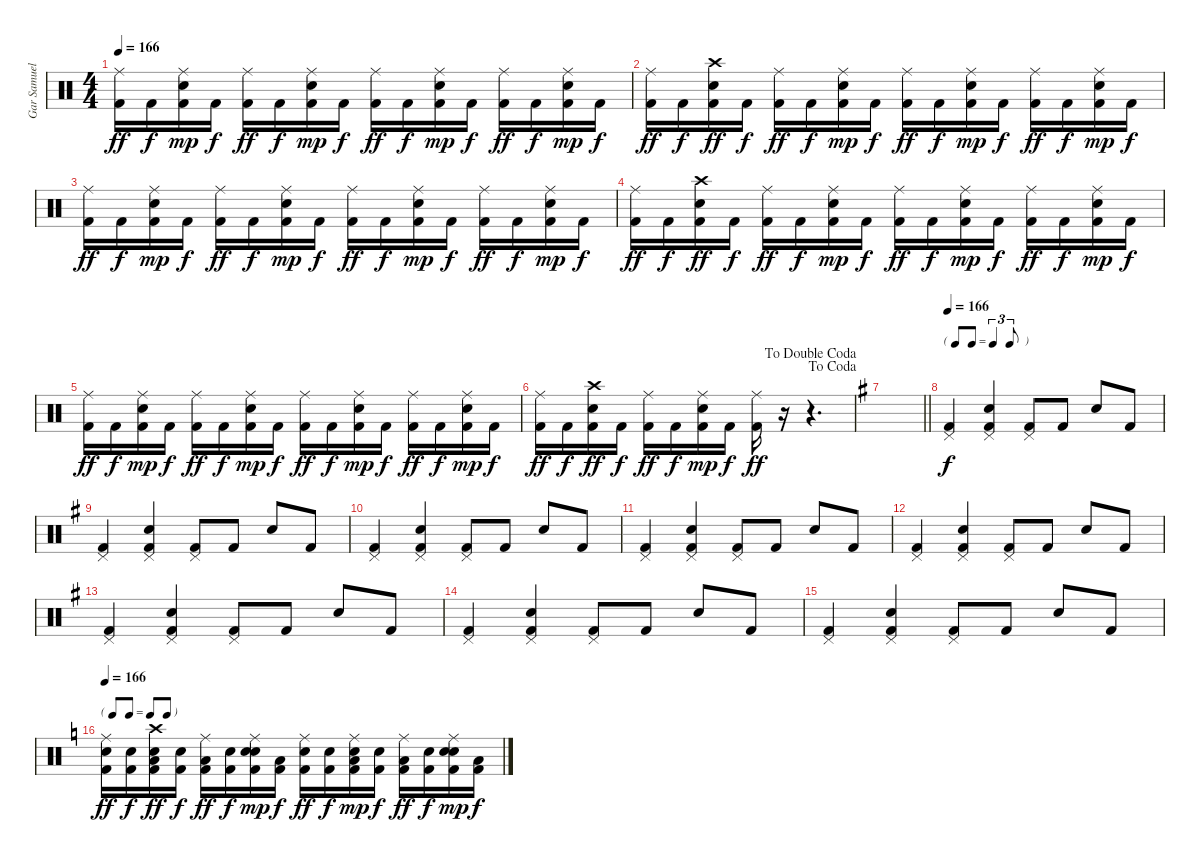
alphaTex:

\track ("Gar Samuelson" "Gar Samuel") {instrument percussion}
\staff {score}
\articulation defaults
\ts (4 4)
\tempo 166
\clef neutral
\ks c
("Ride (middle)" "Kick (hit) 2").16{dy ff} "Kick (hit) 2".16{dy f} ("Kick (hit) 2" "Snare (hit) 2" "Ride (middle)").16{dy mp} "Kick (hit) 2".16{dy f} ("Ride (middle)" "Kick (hit) 2").16{dy ff} "Kick (hit) 2".16{dy f} ("Kick (hit) 2" "Snare (hit) 2" "Ride (middle)").16{dy mp} "Kick (hit) 2".16{dy f} ("Ride (middle)" "Kick (hit) 2").16{dy ff} "Kick (hit) 2".16{dy f} ("Kick (hit) 2" "Snare (hit) 2" "Ride (middle)").16{dy mp} "Kick (hit) 2".16{dy f} ("Ride (middle)" "Kick (hit) 2").16{dy ff} "Kick (hit) 2".16{dy f} ("Kick (hit) 2" "Snare (hit) 2" "Ride (middle)").16{dy mp} "Kick (hit) 2".16{dy f} |
("Ride (middle)" "Kick (hit) 2").16{dy ff} "Kick (hit) 2".16{dy f} ("Snare (hit) 2" "Crash high (hit)" "Kick (hit) 2").16{dy ff} "Kick (hit) 2".16{dy f} ("Ride (middle)" "Kick (hit) 2").16{dy ff} "Kick (hit) 2".16{dy f} ("Kick (hit) 2" "Snare (hit) 2" "Ride (middle)").16{dy mp} "Kick (hit) 2".16{dy f} ("Ride (middle)" "Kick (hit) 2").16{dy ff} "Kick (hit) 2".16{dy f} ("Kick (hit) 2" "Snare (hit) 2" "Ride (middle)").16{dy mp} "Kick (hit) 2".16{dy f} ("Ride (middle)" "Kick (hit) 2").16{dy ff} "Kick (hit) 2".16{dy f} ("Kick (hit) 2" "Snare (hit) 2" "Ride (middle)").16{dy mp} "Kick (hit) 2".16{dy f} |
("Ride (middle)" "Kick (hit) 2").16{dy ff} "Kick (hit) 2".16{dy f} ("Kick (hit) 2" "Snare (hit) 2" "Ride (middle)").16{dy mp} "Kick (hit) 2".16{dy f} ("Ride (middle)" "Kick (hit) 2").16{dy ff} "Kick (hit) 2".16{dy f} ("Kick (hit) 2" "Snare (hit) 2" "Ride (middle)").16{dy mp} "Kick (hit) 2".16{dy f} ("Ride (middle)" "Kick (hit) 2").16{dy ff} "Kick (hit) 2".16{dy f} ("Kick (hit) 2" "Snare (hit) 2" "Ride (middle)").16{dy mp} "Kick (hit) 2".16{dy f} ("Ride (middle)" "Kick (hit) 2").16{dy ff} "Kick (hit) 2".16{dy f} ("Kick (hit) 2" "Snare (hit) 2" "Ride (middle)").16{dy mp} "Kick (hit) 2".16{dy f} |
("Ride (middle)" "Kick (hit) 2").16{dy ff} "Kick (hit) 2".16{dy f} ("Snare (hit) 2" "Crash high (hit)" "Kick (hit) 2").16{dy ff} "Kick (hit) 2".16{dy f} ("Ride (middle)" "Kick (hit) 2").16{dy ff} "Kick (hit) 2".16{dy f} ("Kick (hit) 2" "Snare (hit) 2" "Ride (middle)").16{dy mp} "Kick (hit) 2".16{dy f} ("Ride (middle)" "Kick (hit) 2").16{dy ff} "Kick (hit) 2".16{dy f} ("Kick (hit) 2" "Snare (hit) 2" "Ride (middle)").16{dy mp} "Kick (hit) 2".16{dy f} ("Ride (middle)" "Kick (hit) 2").16{dy ff} "Kick (hit) 2".16{dy f} ("Kick (hit) 2" "Snare (hit) 2" "Ride (middle)").16{dy mp} "Kick (hit) 2".16{dy f} |
("Ride (middle)" "Kick (hit) 2").16{dy ff} "Kick (hit) 2".16{dy f} ("Kick (hit) 2" "Snare (hit) 2" "Ride (middle)").16{dy mp} "Kick (hit) 2".16{dy f} ("Ride (middle)" "Kick (hit) 2").16{dy ff} "Kick (hit) 2".16{dy f} ("Kick (hit) 2" "Snare (hit) 2" "Ride (middle)").16{dy mp} "Kick (hit) 2".16{dy f} ("Ride (middle)" "Kick (hit) 2").16{dy ff} "Kick (hit) 2".16{dy f} ("Kick (hit) 2" "Snare (hit) 2" "Ride (middle)").16{dy mp} "Kick (hit) 2".16{dy f} ("Ride (middle)" "Kick (hit) 2").16{dy ff} "Kick (hit) 2".16{dy f} ("Kick (hit) 2" "Snare (hit) 2" "Ride (middle)").16{dy mp} "Kick (hit) 2".16{dy f} |
\jump dacoda
\jump dadoublecoda
("Ride (middle)" "Kick (hit) 2").16{dy ff} "Kick (hit) 2".16{dy f} ("Snare (hit) 2" "Crash high (hit)" "Kick (hit) 2").16{dy ff} "Kick (hit) 2".16{dy f} ("Ride (middle)" "Kick (hit) 2").16{dy ff} "Kick (hit) 2".16{dy f} ("Kick (hit) 2" "Snare (hit) 2" "Ride (middle)").16{dy mp} "Kick (hit) 2".16{dy f} ("Ride (middle)" "Kick (hit) 2").16{dy ff} r.16 r.4{d} |
\barLineRight lightlight
\ks g
|
\tf triplet8th
\tempo 166
("Pedal Hi-Hat (hit)" "Kick (hit) 2").4{dy f} ("Pedal Hi-Hat (hit)" "Electric Snare (hit)" "Kick (hit) 2").4 ("Pedal Hi-Hat (hit)" "Kick (hit) 2").8 "Kick (hit) 2".8 "Electric Snare (hit)".8 "Kick (hit) 2".8 |
("Pedal Hi-Hat (hit)" "Kick (hit) 2").4 ("Pedal Hi-Hat (hit)" "Electric Snare (hit)" "Kick (hit) 2").4 ("Pedal Hi-Hat (hit)" "Kick (hit) 2").8 "Kick (hit) 2".8 "Electric Snare (hit)".8 "Kick (hit) 2".8 |
("Pedal Hi-Hat (hit)" "Kick (hit) 2").4 ("Pedal Hi-Hat (hit)" "Electric Snare (hit)" "Kick (hit) 2").4 ("Pedal Hi-Hat (hit)" "Kick (hit) 2").8 "Kick (hit) 2".8 "Electric Snare (hit)".8 "Kick (hit) 2".8 |
("Pedal Hi-Hat (hit)" "Kick (hit) 2").4 ("Pedal Hi-Hat (hit)" "Electric Snare (hit)" "Kick (hit) 2").4 ("Pedal Hi-Hat (hit)" "Kick (hit) 2").8 "Kick (hit) 2".8 "Electric Snare (hit)".8 "Kick (hit) 2".8 |
("Pedal Hi-Hat (hit)" "Kick (hit) 2").4 ("Pedal Hi-Hat (hit)" "Electric Snare (hit)" "Kick (hit) 2").4 ("Pedal Hi-Hat (hit)" "Kick (hit) 2").8 "Kick (hit) 2".8 "Electric Snare (hit)".8 "Kick (hit) 2".8 |
("Pedal Hi-Hat (hit)" "Kick (hit) 2").4 ("Pedal Hi-Hat (hit)" "Electric Snare (hit)" "Kick (hit) 2").4 ("Pedal Hi-Hat (hit)" "Kick (hit) 2").8 "Kick (hit) 2".8 "Electric Snare (hit)".8 "Kick (hit) 2".8 |
("Pedal Hi-Hat (hit)" "Kick (hit) 2").4 ("Pedal Hi-Hat (hit)" "Electric Snare (hit)" "Kick (hit) 2").4 ("Pedal Hi-Hat (hit)" "Kick (hit) 2").8 "Kick (hit) 2".8 "Electric Snare (hit)".8 "Kick (hit) 2".8 |
("Pedal Hi-Hat (hit)" "Kick (hit) 2").4 ("Pedal Hi-Hat (hit)" "Electric Snare (hit)" "Kick (hit) 2").4 ("Pedal Hi-Hat (hit)" "Kick (hit) 2").8 "Kick (hit) 2".8 "Electric Snare (hit)".8 "Kick (hit) 2".8 |
\tf none
\tempo 166
\ks c
("Ride (middle)" "Kick (hit) 2" "Electric Snare (hit)").16{dy ff} ("Kick (hit) 2" "Electric Snare (hit)").16{dy f} ("Snare (hit) 2" "Crash high (hit)" "Kick (hit) 2" "Low Tom (hit)").16{dy ff} ("Kick (hit) 2" "Electric Snare (hit)").16{dy f} ("Ride (middle)" "Kick (hit) 2" "Low Tom (hit)").16{dy ff} ("Kick (hit) 2" "Electric Snare (hit)").16{dy f} ("Kick (hit) 2" "Snare (hit) 2" "Ride (middle)" "Electric Snare (hit)").16{dy mp} ("Kick (hit) 2" "Low Tom (hit)").16{dy f} ("Ride (middle)" "Kick (hit) 2" "Electric Snare (hit)").16{dy ff} ("Kick (hit) 2" "Electric Snare (hit)").16{dy f} ("Kick (hit) 2" "Snare (hit) 2" "Ride (middle)" "Low Tom (hit)").16{dy mp} ("Kick (hit) 2" "Electric Snare (hit)").16{dy f} ("Ride (middle)" "Kick (hit) 2" "Low Tom (hit)").16{dy ff} ("Kick (hit) 2" "Electric Snare (hit)").16{dy f} ("Kick (hit) 2" "Snare (hit) 2" "Ride (middle)" "Electric Snare (hit)").16{dy mp} ("Kick (hit) 2" "Low Tom (hit)").16{dy f}
